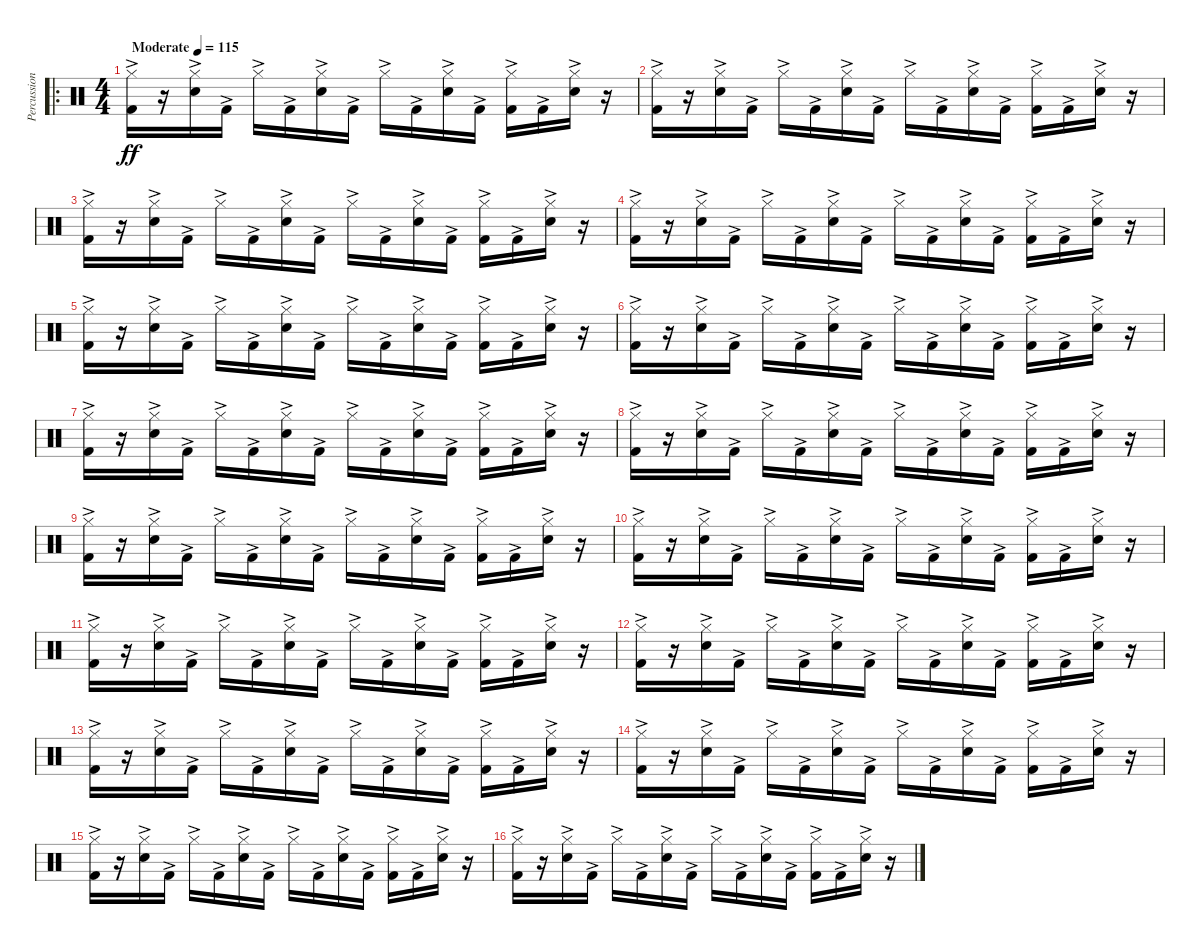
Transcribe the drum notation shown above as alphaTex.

\track ("Percussion" "Percussion") {instrument percussion bank 110}
\staff {score}
\articulation defaults
\ro
\ts (4 4)
\tempo (115 "Moderate")
\clef neutral
\ks c
("Hi-Hat (closed)"{ac} "Kick (hit) 2"{ac}).16{dy ff} r.16 ("Hi-Hat (closed)"{ac} "Snare (hit) 2"{ac}).16 "Kick (hit) 2"{ac}.16 "Hi-Hat (closed)"{ac}.16 "Kick (hit) 2"{ac}.16 ("Hi-Hat (closed)"{ac} "Snare (hit) 2"{ac}).16 "Kick (hit) 2"{ac}.16 "Hi-Hat (closed)"{ac}.16 "Kick (hit) 2"{ac}.16 ("Hi-Hat (closed)"{ac} "Snare (hit) 2"{ac}).16 "Kick (hit) 2"{ac}.16 ("Hi-Hat (closed)"{ac} "Kick (hit) 2"{ac}).16 "Kick (hit) 2"{ac}.16 ("Hi-Hat (closed)"{ac} "Snare (hit) 2"{ac}).16 r.16 |
("Hi-Hat (closed)"{ac} "Kick (hit) 2"{ac}).16 r.16 ("Hi-Hat (closed)"{ac} "Snare (hit) 2"{ac}).16 "Kick (hit) 2"{ac}.16 "Hi-Hat (closed)"{ac}.16 "Kick (hit) 2"{ac}.16 ("Hi-Hat (closed)"{ac} "Snare (hit) 2"{ac}).16 "Kick (hit) 2"{ac}.16 "Hi-Hat (closed)"{ac}.16 "Kick (hit) 2"{ac}.16 ("Hi-Hat (closed)"{ac} "Snare (hit) 2"{ac}).16 "Kick (hit) 2"{ac}.16 ("Hi-Hat (closed)"{ac} "Kick (hit) 2"{ac}).16 "Kick (hit) 2"{ac}.16 ("Hi-Hat (closed)"{ac} "Snare (hit) 2"{ac}).16 r.16 |
("Hi-Hat (closed)"{ac} "Kick (hit) 2"{ac}).16 r.16 ("Hi-Hat (closed)"{ac} "Snare (hit) 2"{ac}).16 "Kick (hit) 2"{ac}.16 "Hi-Hat (closed)"{ac}.16 "Kick (hit) 2"{ac}.16 ("Hi-Hat (closed)"{ac} "Snare (hit) 2"{ac}).16 "Kick (hit) 2"{ac}.16 "Hi-Hat (closed)"{ac}.16 "Kick (hit) 2"{ac}.16 ("Hi-Hat (closed)"{ac} "Snare (hit) 2"{ac}).16 "Kick (hit) 2"{ac}.16 ("Hi-Hat (closed)"{ac} "Kick (hit) 2"{ac}).16 "Kick (hit) 2"{ac}.16 ("Hi-Hat (closed)"{ac} "Snare (hit) 2"{ac}).16 r.16 |
("Hi-Hat (closed)"{ac} "Kick (hit) 2"{ac}).16 r.16 ("Hi-Hat (closed)"{ac} "Snare (hit) 2"{ac}).16 "Kick (hit) 2"{ac}.16 "Hi-Hat (closed)"{ac}.16 "Kick (hit) 2"{ac}.16 ("Hi-Hat (closed)"{ac} "Snare (hit) 2"{ac}).16 "Kick (hit) 2"{ac}.16 "Hi-Hat (closed)"{ac}.16 "Kick (hit) 2"{ac}.16 ("Hi-Hat (closed)"{ac} "Snare (hit) 2"{ac}).16 "Kick (hit) 2"{ac}.16 ("Hi-Hat (closed)"{ac} "Kick (hit) 2"{ac}).16 "Kick (hit) 2"{ac}.16 ("Hi-Hat (closed)"{ac} "Snare (hit) 2"{ac}).16 r.16 |
("Hi-Hat (closed)"{ac} "Kick (hit) 2"{ac}).16 r.16 ("Hi-Hat (closed)"{ac} "Snare (hit) 2"{ac}).16 "Kick (hit) 2"{ac}.16 "Hi-Hat (closed)"{ac}.16 "Kick (hit) 2"{ac}.16 ("Hi-Hat (closed)"{ac} "Snare (hit) 2"{ac}).16 "Kick (hit) 2"{ac}.16 "Hi-Hat (closed)"{ac}.16 "Kick (hit) 2"{ac}.16 ("Hi-Hat (closed)"{ac} "Snare (hit) 2"{ac}).16 "Kick (hit) 2"{ac}.16 ("Hi-Hat (closed)"{ac} "Kick (hit) 2"{ac}).16 "Kick (hit) 2"{ac}.16 ("Hi-Hat (closed)"{ac} "Snare (hit) 2"{ac}).16 r.16 |
("Hi-Hat (closed)"{ac} "Kick (hit) 2"{ac}).16 r.16 ("Hi-Hat (closed)"{ac} "Snare (hit) 2"{ac}).16 "Kick (hit) 2"{ac}.16 "Hi-Hat (closed)"{ac}.16 "Kick (hit) 2"{ac}.16 ("Hi-Hat (closed)"{ac} "Snare (hit) 2"{ac}).16 "Kick (hit) 2"{ac}.16 "Hi-Hat (closed)"{ac}.16 "Kick (hit) 2"{ac}.16 ("Hi-Hat (closed)"{ac} "Snare (hit) 2"{ac}).16 "Kick (hit) 2"{ac}.16 ("Hi-Hat (closed)"{ac} "Kick (hit) 2"{ac}).16 "Kick (hit) 2"{ac}.16 ("Hi-Hat (closed)"{ac} "Snare (hit) 2"{ac}).16 r.16 |
("Hi-Hat (closed)"{ac} "Kick (hit) 2"{ac}).16 r.16 ("Hi-Hat (closed)"{ac} "Snare (hit) 2"{ac}).16 "Kick (hit) 2"{ac}.16 "Hi-Hat (closed)"{ac}.16 "Kick (hit) 2"{ac}.16 ("Hi-Hat (closed)"{ac} "Snare (hit) 2"{ac}).16 "Kick (hit) 2"{ac}.16 "Hi-Hat (closed)"{ac}.16 "Kick (hit) 2"{ac}.16 ("Hi-Hat (closed)"{ac} "Snare (hit) 2"{ac}).16 "Kick (hit) 2"{ac}.16 ("Hi-Hat (closed)"{ac} "Kick (hit) 2"{ac}).16 "Kick (hit) 2"{ac}.16 ("Hi-Hat (closed)"{ac} "Snare (hit) 2"{ac}).16 r.16 |
("Hi-Hat (closed)"{ac} "Kick (hit) 2"{ac}).16 r.16 ("Hi-Hat (closed)"{ac} "Snare (hit) 2"{ac}).16 "Kick (hit) 2"{ac}.16 "Hi-Hat (closed)"{ac}.16 "Kick (hit) 2"{ac}.16 ("Hi-Hat (closed)"{ac} "Snare (hit) 2"{ac}).16 "Kick (hit) 2"{ac}.16 "Hi-Hat (closed)"{ac}.16 "Kick (hit) 2"{ac}.16 ("Hi-Hat (closed)"{ac} "Snare (hit) 2"{ac}).16 "Kick (hit) 2"{ac}.16 ("Hi-Hat (closed)"{ac} "Kick (hit) 2"{ac}).16 "Kick (hit) 2"{ac}.16 ("Hi-Hat (closed)"{ac} "Snare (hit) 2"{ac}).16 r.16 |
("Hi-Hat (closed)"{ac} "Kick (hit) 2"{ac}).16 r.16 ("Hi-Hat (closed)"{ac} "Snare (hit) 2"{ac}).16 "Kick (hit) 2"{ac}.16 "Hi-Hat (closed)"{ac}.16 "Kick (hit) 2"{ac}.16 ("Hi-Hat (closed)"{ac} "Snare (hit) 2"{ac}).16 "Kick (hit) 2"{ac}.16 "Hi-Hat (closed)"{ac}.16 "Kick (hit) 2"{ac}.16 ("Hi-Hat (closed)"{ac} "Snare (hit) 2"{ac}).16 "Kick (hit) 2"{ac}.16 ("Hi-Hat (closed)"{ac} "Kick (hit) 2"{ac}).16 "Kick (hit) 2"{ac}.16 ("Hi-Hat (closed)"{ac} "Snare (hit) 2"{ac}).16 r.16 |
("Hi-Hat (closed)"{ac} "Kick (hit) 2"{ac}).16 r.16 ("Hi-Hat (closed)"{ac} "Snare (hit) 2"{ac}).16 "Kick (hit) 2"{ac}.16 "Hi-Hat (closed)"{ac}.16 "Kick (hit) 2"{ac}.16 ("Hi-Hat (closed)"{ac} "Snare (hit) 2"{ac}).16 "Kick (hit) 2"{ac}.16 "Hi-Hat (closed)"{ac}.16 "Kick (hit) 2"{ac}.16 ("Hi-Hat (closed)"{ac} "Snare (hit) 2"{ac}).16 "Kick (hit) 2"{ac}.16 ("Hi-Hat (closed)"{ac} "Kick (hit) 2"{ac}).16 "Kick (hit) 2"{ac}.16 ("Hi-Hat (closed)"{ac} "Snare (hit) 2"{ac}).16 r.16 |
("Hi-Hat (closed)"{ac} "Kick (hit) 2"{ac}).16 r.16 ("Hi-Hat (closed)"{ac} "Snare (hit) 2"{ac}).16 "Kick (hit) 2"{ac}.16 "Hi-Hat (closed)"{ac}.16 "Kick (hit) 2"{ac}.16 ("Hi-Hat (closed)"{ac} "Snare (hit) 2"{ac}).16 "Kick (hit) 2"{ac}.16 "Hi-Hat (closed)"{ac}.16 "Kick (hit) 2"{ac}.16 ("Hi-Hat (closed)"{ac} "Snare (hit) 2"{ac}).16 "Kick (hit) 2"{ac}.16 ("Hi-Hat (closed)"{ac} "Kick (hit) 2"{ac}).16 "Kick (hit) 2"{ac}.16 ("Hi-Hat (closed)"{ac} "Snare (hit) 2"{ac}).16 r.16 |
("Hi-Hat (closed)"{ac} "Kick (hit) 2"{ac}).16 r.16 ("Hi-Hat (closed)"{ac} "Snare (hit) 2"{ac}).16 "Kick (hit) 2"{ac}.16 "Hi-Hat (closed)"{ac}.16 "Kick (hit) 2"{ac}.16 ("Hi-Hat (closed)"{ac} "Snare (hit) 2"{ac}).16 "Kick (hit) 2"{ac}.16 "Hi-Hat (closed)"{ac}.16 "Kick (hit) 2"{ac}.16 ("Hi-Hat (closed)"{ac} "Snare (hit) 2"{ac}).16 "Kick (hit) 2"{ac}.16 ("Hi-Hat (closed)"{ac} "Kick (hit) 2"{ac}).16 "Kick (hit) 2"{ac}.16 ("Hi-Hat (closed)"{ac} "Snare (hit) 2"{ac}).16 r.16 |
("Hi-Hat (closed)"{ac} "Kick (hit) 2"{ac}).16 r.16 ("Hi-Hat (closed)"{ac} "Snare (hit) 2"{ac}).16 "Kick (hit) 2"{ac}.16 "Hi-Hat (closed)"{ac}.16 "Kick (hit) 2"{ac}.16 ("Hi-Hat (closed)"{ac} "Snare (hit) 2"{ac}).16 "Kick (hit) 2"{ac}.16 "Hi-Hat (closed)"{ac}.16 "Kick (hit) 2"{ac}.16 ("Hi-Hat (closed)"{ac} "Snare (hit) 2"{ac}).16 "Kick (hit) 2"{ac}.16 ("Hi-Hat (closed)"{ac} "Kick (hit) 2"{ac}).16 "Kick (hit) 2"{ac}.16 ("Hi-Hat (closed)"{ac} "Snare (hit) 2"{ac}).16 r.16 |
("Hi-Hat (closed)"{ac} "Kick (hit) 2"{ac}).16 r.16 ("Hi-Hat (closed)"{ac} "Snare (hit) 2"{ac}).16 "Kick (hit) 2"{ac}.16 "Hi-Hat (closed)"{ac}.16 "Kick (hit) 2"{ac}.16 ("Hi-Hat (closed)"{ac} "Snare (hit) 2"{ac}).16 "Kick (hit) 2"{ac}.16 "Hi-Hat (closed)"{ac}.16 "Kick (hit) 2"{ac}.16 ("Hi-Hat (closed)"{ac} "Snare (hit) 2"{ac}).16 "Kick (hit) 2"{ac}.16 ("Hi-Hat (closed)"{ac} "Kick (hit) 2"{ac}).16 "Kick (hit) 2"{ac}.16 ("Hi-Hat (closed)"{ac} "Snare (hit) 2"{ac}).16 r.16 |
("Hi-Hat (closed)"{ac} "Kick (hit) 2"{ac}).16 r.16 ("Hi-Hat (closed)"{ac} "Snare (hit) 2"{ac}).16 "Kick (hit) 2"{ac}.16 "Hi-Hat (closed)"{ac}.16 "Kick (hit) 2"{ac}.16 ("Hi-Hat (closed)"{ac} "Snare (hit) 2"{ac}).16 "Kick (hit) 2"{ac}.16 "Hi-Hat (closed)"{ac}.16 "Kick (hit) 2"{ac}.16 ("Hi-Hat (closed)"{ac} "Snare (hit) 2"{ac}).16 "Kick (hit) 2"{ac}.16 ("Hi-Hat (closed)"{ac} "Kick (hit) 2"{ac}).16 "Kick (hit) 2"{ac}.16 ("Hi-Hat (closed)"{ac} "Snare (hit) 2"{ac}).16 r.16 |
("Hi-Hat (closed)"{ac} "Kick (hit) 2"{ac}).16 r.16 ("Hi-Hat (closed)"{ac} "Snare (hit) 2"{ac}).16 "Kick (hit) 2"{ac}.16 "Hi-Hat (closed)"{ac}.16 "Kick (hit) 2"{ac}.16 ("Hi-Hat (closed)"{ac} "Snare (hit) 2"{ac}).16 "Kick (hit) 2"{ac}.16 "Hi-Hat (closed)"{ac}.16 "Kick (hit) 2"{ac}.16 ("Hi-Hat (closed)"{ac} "Snare (hit) 2"{ac}).16 "Kick (hit) 2"{ac}.16 ("Hi-Hat (closed)"{ac} "Kick (hit) 2"{ac}).16 "Kick (hit) 2"{ac}.16 ("Hi-Hat (closed)"{ac} "Snare (hit) 2"{ac}).16 r.16
